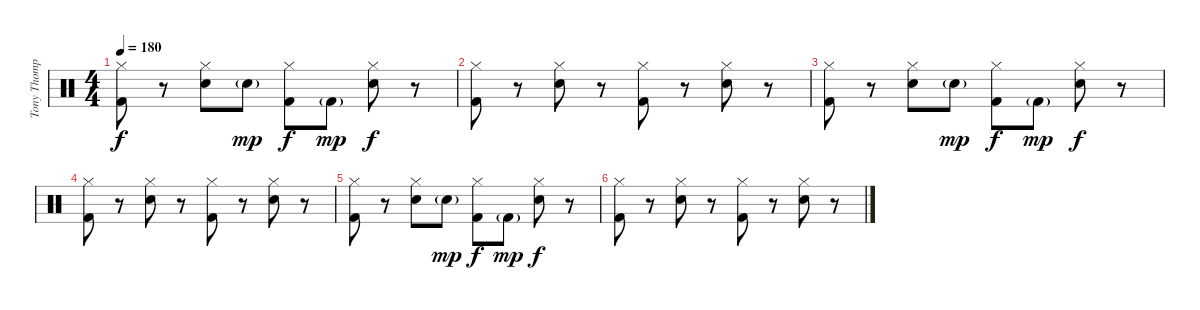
\track ("Tony Thompson (Drums)" "Tony Thomp") {instrument percussion}
\staff {score}
\articulation defaults
\ts (4 4)
\tempo 180
\clef neutral
\ks c
("Hi-Hat (closed)" "Kick (hit) 2").8{dy f} r.8 ("Hi-Hat (closed)" "Electric Snare (hit)").8 "Electric Snare (hit)"{g}.8{dy mp} ("Hi-Hat (closed)" "Kick (hit) 2").8{dy f} "Kick (hit) 2"{g}.8{dy mp} ("Hi-Hat (closed)" "Electric Snare (hit)").8{dy f} r.8 |
("Hi-Hat (closed)" "Kick (hit) 2").8 r.8 ("Hi-Hat (closed)" "Electric Snare (hit)").8 r.8 ("Hi-Hat (closed)" "Kick (hit) 2").8 r.8 ("Hi-Hat (closed)" "Electric Snare (hit)").8 r.8 |
("Hi-Hat (closed)" "Kick (hit) 2").8 r.8 ("Hi-Hat (closed)" "Electric Snare (hit)").8 "Electric Snare (hit)"{g}.8{dy mp} ("Hi-Hat (closed)" "Kick (hit) 2").8{dy f} "Kick (hit) 2"{g}.8{dy mp} ("Hi-Hat (closed)" "Electric Snare (hit)").8{dy f} r.8 |
("Hi-Hat (closed)" "Kick (hit) 2").8 r.8 ("Hi-Hat (closed)" "Electric Snare (hit)").8 r.8 ("Hi-Hat (closed)" "Kick (hit) 2").8 r.8 ("Hi-Hat (closed)" "Electric Snare (hit)").8 r.8 |
("Hi-Hat (closed)" "Kick (hit) 2").8 r.8 ("Hi-Hat (closed)" "Electric Snare (hit)").8 "Electric Snare (hit)"{g}.8{dy mp} ("Hi-Hat (closed)" "Kick (hit) 2").8{dy f} "Kick (hit) 2"{g}.8{dy mp} ("Hi-Hat (closed)" "Electric Snare (hit)").8{dy f} r.8 |
("Hi-Hat (closed)" "Kick (hit) 2").8 r.8 ("Hi-Hat (closed)" "Electric Snare (hit)").8 r.8 ("Hi-Hat (closed)" "Kick (hit) 2").8 r.8 ("Hi-Hat (closed)" "Electric Snare (hit)").8 r.8
